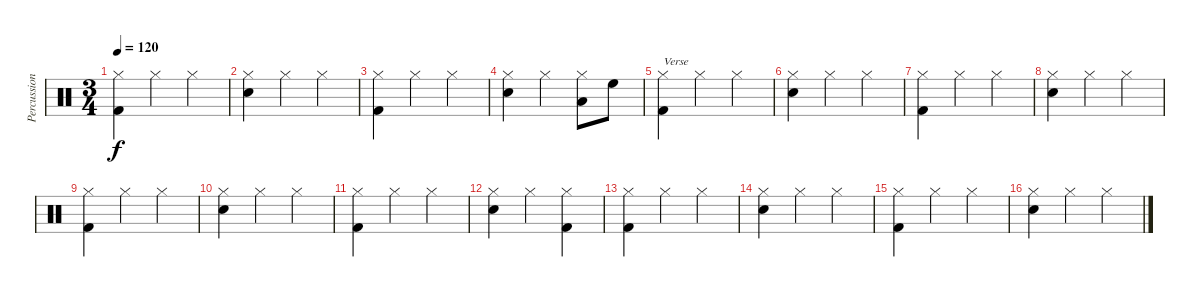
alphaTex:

\track ("Percussion" "Percussion") {instrument percussion}
\staff {score}
\articulation defaults
\ts (3 4)
\tempo 120
\clef neutral
\ks c
("Kick (hit) 2" "Hi-Hat (closed)").4{dy f} "Hi-Hat (closed)".4 "Hi-Hat (closed)".4 |
("Snare (hit) 2" "Hi-Hat (closed)").4 "Hi-Hat (closed)".4 "Hi-Hat (closed)".4 |
("Kick (hit) 2" "Hi-Hat (closed)").4 "Hi-Hat (closed)".4 "Hi-Hat (closed)".4 |
("Snare (hit) 2" "Hi-Hat (closed)").4 "Hi-Hat (closed)".4 ("Low Tom (hit)" "Hi-Hat (closed)").8 "High Floor Tom (hit)".8 |
("Kick (hit) 2" "Hi-Hat (closed)").4{txt "Verse"} "Hi-Hat (closed)".4 "Hi-Hat (closed)".4 |
("Snare (hit) 2" "Hi-Hat (closed)").4 "Hi-Hat (closed)".4 "Hi-Hat (closed)".4 |
("Kick (hit) 2" "Hi-Hat (closed)").4 "Hi-Hat (closed)".4 "Hi-Hat (closed)".4 |
("Snare (hit) 2" "Hi-Hat (closed)").4 "Hi-Hat (closed)".4 "Hi-Hat (closed)".4 |
("Kick (hit) 2" "Hi-Hat (closed)").4 "Hi-Hat (closed)".4 "Hi-Hat (closed)".4 |
("Snare (hit) 2" "Hi-Hat (closed)").4 "Hi-Hat (closed)".4 "Hi-Hat (closed)".4 |
("Kick (hit) 2" "Hi-Hat (closed)").4 "Hi-Hat (closed)".4 "Hi-Hat (closed)".4 |
("Snare (hit) 2" "Hi-Hat (closed)").4 "Hi-Hat (closed)".4 ("Kick (hit) 2" "Hi-Hat (closed)").4 |
("Kick (hit) 2" "Hi-Hat (closed)").4 "Hi-Hat (closed)".4 "Hi-Hat (closed)".4 |
("Snare (hit) 2" "Hi-Hat (closed)").4 "Hi-Hat (closed)".4 "Hi-Hat (closed)".4 |
("Kick (hit) 2" "Hi-Hat (closed)").4 "Hi-Hat (closed)".4 "Hi-Hat (closed)".4 |
("Snare (hit) 2" "Hi-Hat (closed)").4 "Hi-Hat (closed)".4 "Hi-Hat (closed)".4
